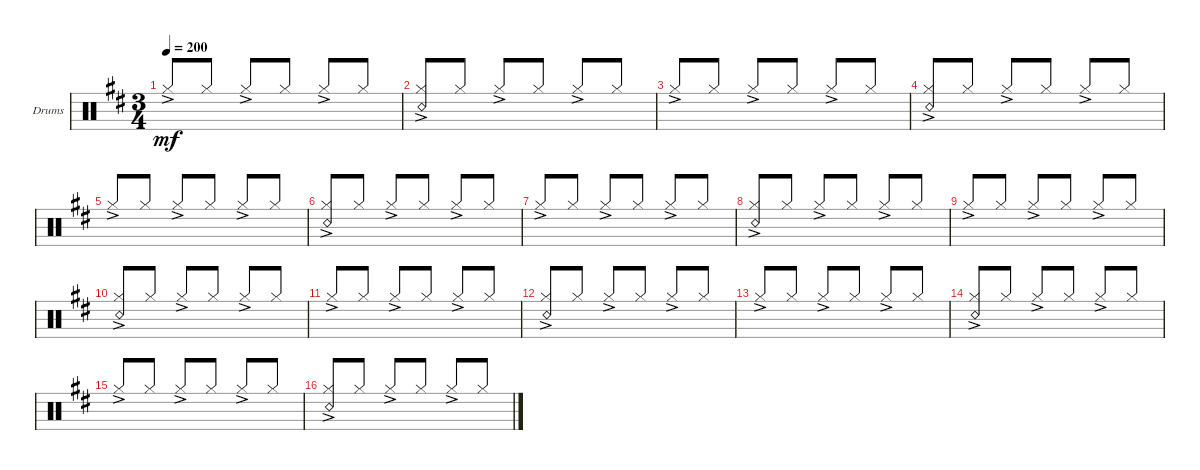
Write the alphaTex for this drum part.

\defaultSystemsLayout 4
\bracketExtendMode groupsimilarinstruments
\firstSystemTrackNameOrientation horizontal
\otherSystemsTrackNameOrientation horizontal
\track ("Drumkit" "Drums") {instrument percussion}
\staff {score}
\articulation defaults
\ts (3 4)
\tempo 200
\clef neutral
\ks d "Hi-Hat (closed)"{ac}.8{dy mf beam invert} "Hi-Hat (closed)".8 "Hi-Hat (closed)"{ac}.8{beam invert} "Hi-Hat (closed)".8 "Hi-Hat (closed)"{ac}.8{beam invert} "Hi-Hat (closed)".8
|
("Hi-Hat (closed)"{ac} "Snare (rim shot)").8{beam invert} "Hi-Hat (closed)".8 "Hi-Hat (closed)"{ac}.8{beam invert} "Hi-Hat (closed)".8 "Hi-Hat (closed)"{ac}.8{beam invert} "Hi-Hat (closed)".8 |
"Hi-Hat (closed)"{ac}.8{beam invert} "Hi-Hat (closed)".8 "Hi-Hat (closed)"{ac}.8{beam invert} "Hi-Hat (closed)".8 "Hi-Hat (closed)"{ac}.8{beam invert} "Hi-Hat (closed)".8 |
("Hi-Hat (closed)"{ac} "Snare (rim shot)").8{beam invert} "Hi-Hat (closed)".8 "Hi-Hat (closed)"{ac}.8{beam invert} "Hi-Hat (closed)".8 "Hi-Hat (closed)"{ac}.8{beam invert} "Hi-Hat (closed)".8 |
"Hi-Hat (closed)"{ac}.8{beam invert} "Hi-Hat (closed)".8 "Hi-Hat (closed)"{ac}.8{beam invert} "Hi-Hat (closed)".8 "Hi-Hat (closed)"{ac}.8{beam invert} "Hi-Hat (closed)".8 |
("Hi-Hat (closed)"{ac} "Snare (rim shot)").8{beam invert} "Hi-Hat (closed)".8 "Hi-Hat (closed)"{ac}.8{beam invert} "Hi-Hat (closed)".8 "Hi-Hat (closed)"{ac}.8{beam invert} "Hi-Hat (closed)".8 |
"Hi-Hat (closed)"{ac}.8{beam invert} "Hi-Hat (closed)".8 "Hi-Hat (closed)"{ac}.8{beam invert} "Hi-Hat (closed)".8 "Hi-Hat (closed)"{ac}.8{beam invert} "Hi-Hat (closed)".8 |
("Hi-Hat (closed)"{ac} "Snare (rim shot)").8{beam invert} "Hi-Hat (closed)".8 "Hi-Hat (closed)"{ac}.8{beam invert} "Hi-Hat (closed)".8 "Hi-Hat (closed)"{ac}.8{beam invert} "Hi-Hat (closed)".8 |
"Hi-Hat (closed)"{ac}.8{beam invert} "Hi-Hat (closed)".8 "Hi-Hat (closed)"{ac}.8{beam invert} "Hi-Hat (closed)".8 "Hi-Hat (closed)"{ac}.8{beam invert} "Hi-Hat (closed)".8 |
("Hi-Hat (closed)"{ac} "Snare (rim shot)").8{beam invert} "Hi-Hat (closed)".8 "Hi-Hat (closed)"{ac}.8{beam invert} "Hi-Hat (closed)".8 "Hi-Hat (closed)"{ac}.8{beam invert} "Hi-Hat (closed)".8 |
"Hi-Hat (closed)"{ac}.8{beam invert} "Hi-Hat (closed)".8 "Hi-Hat (closed)"{ac}.8{beam invert} "Hi-Hat (closed)".8 "Hi-Hat (closed)"{ac}.8{beam invert} "Hi-Hat (closed)".8 |
("Hi-Hat (closed)"{ac} "Snare (rim shot)").8{beam invert} "Hi-Hat (closed)".8 "Hi-Hat (closed)"{ac}.8{beam invert} "Hi-Hat (closed)".8 "Hi-Hat (closed)"{ac}.8{beam invert} "Hi-Hat (closed)".8 |
"Hi-Hat (closed)"{ac}.8{beam invert} "Hi-Hat (closed)".8 "Hi-Hat (closed)"{ac}.8{beam invert} "Hi-Hat (closed)".8 "Hi-Hat (closed)"{ac}.8{beam invert} "Hi-Hat (closed)".8 |
("Hi-Hat (closed)"{ac} "Snare (rim shot)").8{beam invert} "Hi-Hat (closed)".8 "Hi-Hat (closed)"{ac}.8{beam invert} "Hi-Hat (closed)".8 "Hi-Hat (closed)"{ac}.8{beam invert} "Hi-Hat (closed)".8 |
"Hi-Hat (closed)"{ac}.8{beam invert} "Hi-Hat (closed)".8 "Hi-Hat (closed)"{ac}.8{beam invert} "Hi-Hat (closed)".8 "Hi-Hat (closed)"{ac}.8{beam invert} "Hi-Hat (closed)".8 |
("Hi-Hat (closed)"{ac} "Snare (rim shot)").8{beam invert} "Hi-Hat (closed)".8 "Hi-Hat (closed)"{ac}.8{beam invert} "Hi-Hat (closed)".8 "Hi-Hat (closed)"{ac}.8{beam invert} "Hi-Hat (closed)".8
